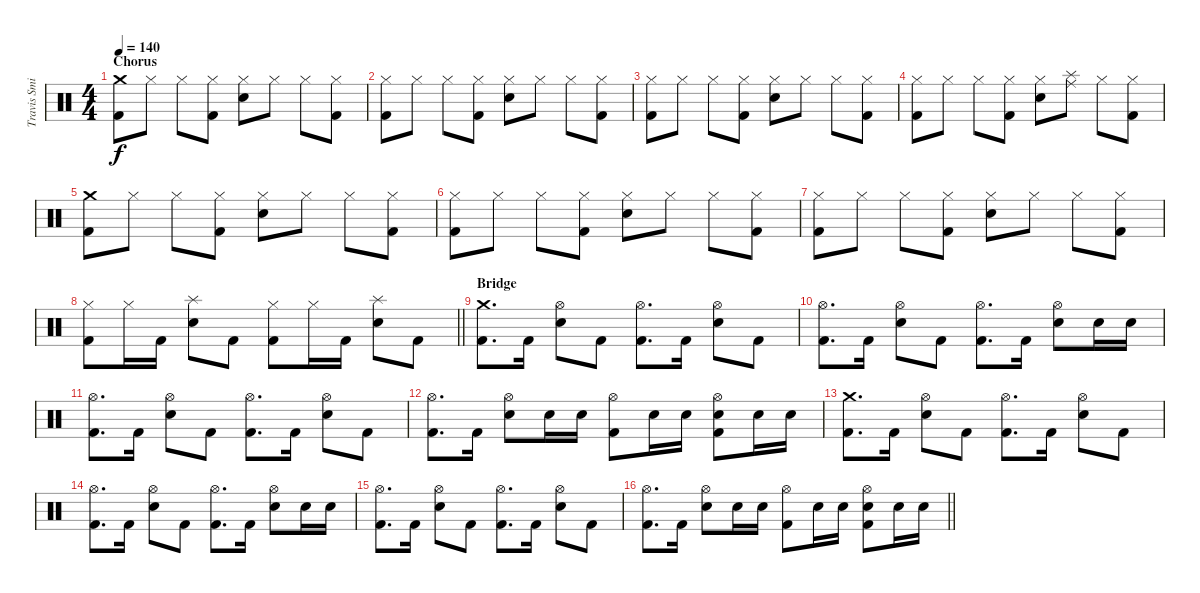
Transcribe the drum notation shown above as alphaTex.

\track ("Travis Smith" "Travis Smi") {instrument percussion}
\staff {score}
\articulation defaults
\ts (4 4)
\section ("" "Chorus")
\tempo 140
\clef neutral
\ks c
("Crash medium (hit)" "Kick (hit) 2").8{dy f} "Hi-Hat (closed)".8 "Hi-Hat (closed)".8 ("Hi-Hat (closed)" "Kick (hit) 2").8 ("Hi-Hat (closed)" "Electric Snare (hit)").8 "Hi-Hat (closed)".8 "Hi-Hat (closed)".8 ("Hi-Hat (closed)" "Kick (hit) 2").8 |
("Hi-Hat (closed)" "Kick (hit) 2").8 "Hi-Hat (closed)".8 "Hi-Hat (closed)".8 ("Hi-Hat (closed)" "Kick (hit) 2").8 ("Hi-Hat (closed)" "Electric Snare (hit)").8 "Hi-Hat (closed)".8 "Hi-Hat (closed)".8 ("Hi-Hat (closed)" "Kick (hit) 2").8 |
("Hi-Hat (closed)" "Kick (hit) 2").8 "Hi-Hat (closed)".8 "Hi-Hat (closed)".8 ("Hi-Hat (closed)" "Kick (hit) 2").8 ("Hi-Hat (closed)" "Electric Snare (hit)").8 "Hi-Hat (closed)".8 "Hi-Hat (closed)".8 ("Hi-Hat (closed)" "Kick (hit) 2").8 |
("Hi-Hat (closed)" "Kick (hit) 2").8 "Hi-Hat (closed)".8 "Hi-Hat (closed)".8 ("Hi-Hat (closed)" "Kick (hit) 2").8 ("Hi-Hat (closed)" "Electric Snare (hit)").8 ("Ride (middle)" "Splash (hit)").8 "Hi-Hat (closed)".8 ("Hi-Hat (closed)" "Kick (hit) 2").8 |
("Crash medium (hit)" "Kick (hit) 2").8 "Hi-Hat (closed)".8 "Hi-Hat (closed)".8 ("Hi-Hat (closed)" "Kick (hit) 2").8 ("Hi-Hat (closed)" "Electric Snare (hit)").8 "Hi-Hat (closed)".8 "Hi-Hat (closed)".8 ("Hi-Hat (closed)" "Kick (hit) 2").8 |
("Hi-Hat (closed)" "Kick (hit) 2").8 "Hi-Hat (closed)".8 "Hi-Hat (closed)".8 ("Hi-Hat (closed)" "Kick (hit) 2").8 ("Hi-Hat (closed)" "Electric Snare (hit)").8 "Hi-Hat (closed)".8 "Hi-Hat (closed)".8 ("Hi-Hat (closed)" "Kick (hit) 2").8 |
("Hi-Hat (closed)" "Kick (hit) 2").8 "Hi-Hat (closed)".8 "Hi-Hat (closed)".8 ("Hi-Hat (closed)" "Kick (hit) 2").8 ("Hi-Hat (closed)" "Electric Snare (hit)").8 "Hi-Hat (closed)".8 "Hi-Hat (closed)".8 ("Hi-Hat (closed)" "Kick (hit) 2").8 |
\barLineRight lightlight
("Hi-Hat (closed)" "Kick (hit) 2").8 "Hi-Hat (closed)".16 "Kick (hit) 2".16 ("Splash (hit)" "Electric Snare (hit)").8 "Kick (hit) 2".8 ("Hi-Hat (closed)" "Kick (hit) 2").8 "Hi-Hat (closed)".16 "Kick (hit) 2".16 ("Splash (hit)" "Electric Snare (hit)").8 "Kick (hit) 2".8 |
\section ("" "Bridge")
("Crash medium (hit)" "Kick (hit) 2").8{d} "Kick (hit) 2".16 ("Hi-Hat (open)" "Electric Snare (hit)").8 "Kick (hit) 2".8 ("Hi-Hat (open)" "Kick (hit) 2").8{d} "Kick (hit) 2".16 ("Hi-Hat (open)" "Electric Snare (hit)").8 "Kick (hit) 2".8 |
("Hi-Hat (open)" "Kick (hit) 2").8{d} "Kick (hit) 2".16 ("Hi-Hat (open)" "Electric Snare (hit)").8 "Kick (hit) 2".8 ("Hi-Hat (open)" "Kick (hit) 2").8{d} "Kick (hit) 2".16 ("Hi-Hat (open)" "Electric Snare (hit)").8 "Electric Snare (hit)".16 "Electric Snare (hit)".16 |
("Hi-Hat (open)" "Kick (hit) 2").8{d} "Kick (hit) 2".16 ("Hi-Hat (open)" "Electric Snare (hit)").8 "Kick (hit) 2".8 ("Hi-Hat (open)" "Kick (hit) 2").8{d} "Kick (hit) 2".16 ("Hi-Hat (open)" "Electric Snare (hit)").8 "Kick (hit) 2".8 |
("Hi-Hat (open)" "Kick (hit) 2").8{d} "Kick (hit) 2".16 ("Hi-Hat (open)" "Electric Snare (hit)").8 "Electric Snare (hit)".16 "Electric Snare (hit)".16 ("Hi-Hat (open)" "Kick (hit) 2").8 "Electric Snare (hit)".16 "Electric Snare (hit)".16 ("Hi-Hat (open)" "Electric Snare (hit)" "Kick (hit) 2").8 "Electric Snare (hit)".16 "Electric Snare (hit)".16 |
("Crash medium (hit)" "Kick (hit) 2").8{d} "Kick (hit) 2".16 ("Hi-Hat (open)" "Electric Snare (hit)").8 "Kick (hit) 2".8 ("Hi-Hat (open)" "Kick (hit) 2").8{d} "Kick (hit) 2".16 ("Hi-Hat (open)" "Electric Snare (hit)").8 "Kick (hit) 2".8 |
("Hi-Hat (open)" "Kick (hit) 2").8{d} "Kick (hit) 2".16 ("Hi-Hat (open)" "Electric Snare (hit)").8 "Kick (hit) 2".8 ("Hi-Hat (open)" "Kick (hit) 2").8{d} "Kick (hit) 2".16 ("Hi-Hat (open)" "Electric Snare (hit)").8 "Electric Snare (hit)".16 "Electric Snare (hit)".16 |
("Hi-Hat (open)" "Kick (hit) 2").8{d} "Kick (hit) 2".16 ("Hi-Hat (open)" "Electric Snare (hit)").8 "Kick (hit) 2".8 ("Hi-Hat (open)" "Kick (hit) 2").8{d} "Kick (hit) 2".16 ("Hi-Hat (open)" "Electric Snare (hit)").8 "Kick (hit) 2".8 |
\barLineRight lightlight
("Hi-Hat (open)" "Kick (hit) 2").8{d} "Kick (hit) 2".16 ("Hi-Hat (open)" "Electric Snare (hit)").8 "Electric Snare (hit)".16 "Electric Snare (hit)".16 ("Hi-Hat (open)" "Kick (hit) 2").8 "Electric Snare (hit)".16 "Electric Snare (hit)".16 ("Hi-Hat (open)" "Electric Snare (hit)" "Kick (hit) 2").8 "Electric Snare (hit)".16 "Electric Snare (hit)".16
